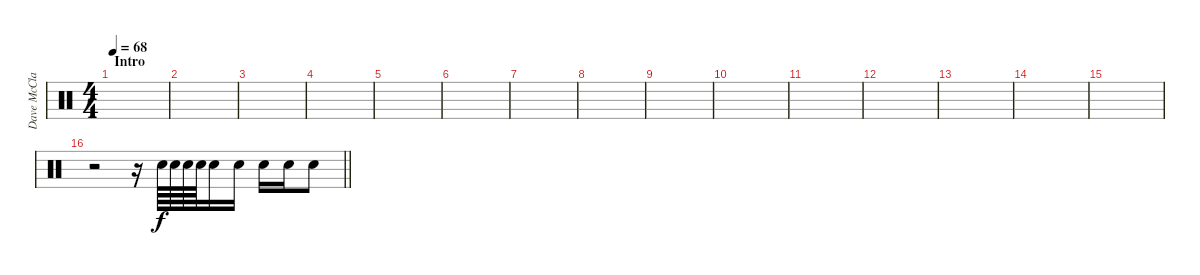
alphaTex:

\track ("Dave McClain - Drums" "Dave McCla") {instrument percussion}
\staff {score}
\articulation defaults
\ts (4 4)
\section ("" "Intro")
\tempo 68
\clef neutral
\ks c
|
|
|
|
|
|
|
|
|
|
|
|
|
|
|
\barLineRight lightlight
r.2 r.16{volume 6} "Electric Snare (hit)".64 "Electric Snare (hit)".64 "Electric Snare (hit)".64 "Electric Snare (hit)".64 "Electric Snare (hit)".16 "Electric Snare (hit)".16 "Electric Snare (hit)".16 "Electric Snare (hit)".16 "Electric Snare (hit)".8
